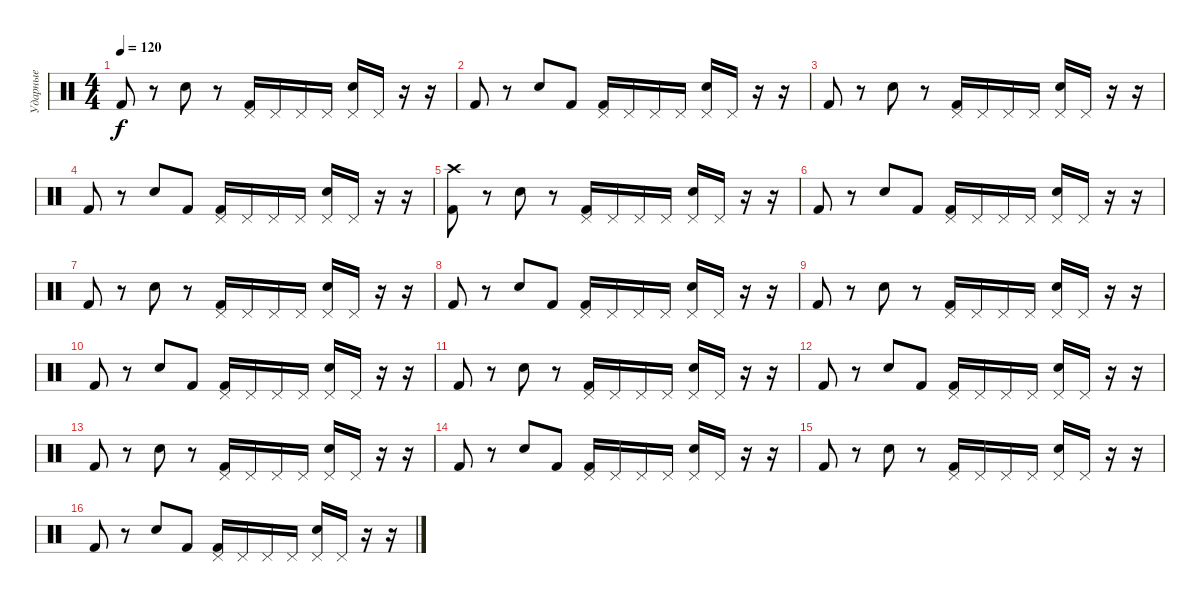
\track ("Ударные" "Ударные") {instrument percussion}
\staff {score}
\articulation defaults
\ts (4 4)
\tempo 120
\clef neutral
\ks c "Kick (hit) 2".8{dy f}
r.8 "Electric Snare (hit)".8 r.8 ("Pedal Hi-Hat (hit)" "Kick (hit) 2").16 "Pedal Hi-Hat (hit)".16 "Pedal Hi-Hat (hit)".16 "Pedal Hi-Hat (hit)".16 ("Pedal Hi-Hat (hit)" "Electric Snare (hit)").16 "Pedal Hi-Hat (hit)".16 r.16 r.16 |
"Kick (hit) 2".8 r.8 "Electric Snare (hit)".8 "Kick (hit) 2".8 ("Pedal Hi-Hat (hit)" "Kick (hit) 2").16 "Pedal Hi-Hat (hit)".16 "Pedal Hi-Hat (hit)".16 "Pedal Hi-Hat (hit)".16 ("Pedal Hi-Hat (hit)" "Electric Snare (hit)").16 "Pedal Hi-Hat (hit)".16 r.16 r.16 |
"Kick (hit) 2".8 r.8 "Electric Snare (hit)".8 r.8 ("Pedal Hi-Hat (hit)" "Kick (hit) 2").16 "Pedal Hi-Hat (hit)".16 "Pedal Hi-Hat (hit)".16 "Pedal Hi-Hat (hit)".16 ("Pedal Hi-Hat (hit)" "Electric Snare (hit)").16 "Pedal Hi-Hat (hit)".16 r.16 r.16 |
"Kick (hit) 2".8 r.8 "Electric Snare (hit)".8 "Kick (hit) 2".8 ("Pedal Hi-Hat (hit)" "Kick (hit) 2").16 "Pedal Hi-Hat (hit)".16 "Pedal Hi-Hat (hit)".16 "Pedal Hi-Hat (hit)".16 ("Pedal Hi-Hat (hit)" "Electric Snare (hit)").16 "Pedal Hi-Hat (hit)".16 r.16 r.16 |
("Crash high (hit)" "Kick (hit) 2").8 r.8 "Electric Snare (hit)".8 r.8 ("Pedal Hi-Hat (hit)" "Kick (hit) 2").16 "Pedal Hi-Hat (hit)".16 "Pedal Hi-Hat (hit)".16 "Pedal Hi-Hat (hit)".16 ("Pedal Hi-Hat (hit)" "Electric Snare (hit)").16 "Pedal Hi-Hat (hit)".16 r.16 r.16 |
"Kick (hit) 2".8 r.8 "Electric Snare (hit)".8 "Kick (hit) 2".8 ("Pedal Hi-Hat (hit)" "Kick (hit) 2").16 "Pedal Hi-Hat (hit)".16 "Pedal Hi-Hat (hit)".16 "Pedal Hi-Hat (hit)".16 ("Pedal Hi-Hat (hit)" "Electric Snare (hit)").16 "Pedal Hi-Hat (hit)".16 r.16 r.16 |
"Kick (hit) 2".8 r.8 "Electric Snare (hit)".8 r.8 ("Pedal Hi-Hat (hit)" "Kick (hit) 2").16 "Pedal Hi-Hat (hit)".16 "Pedal Hi-Hat (hit)".16 "Pedal Hi-Hat (hit)".16 ("Pedal Hi-Hat (hit)" "Electric Snare (hit)").16 "Pedal Hi-Hat (hit)".16 r.16 r.16 |
"Kick (hit) 2".8 r.8 "Electric Snare (hit)".8 "Kick (hit) 2".8 ("Pedal Hi-Hat (hit)" "Kick (hit) 2").16 "Pedal Hi-Hat (hit)".16 "Pedal Hi-Hat (hit)".16 "Pedal Hi-Hat (hit)".16 ("Pedal Hi-Hat (hit)" "Electric Snare (hit)").16 "Pedal Hi-Hat (hit)".16 r.16 r.16 |
"Kick (hit) 2".8 r.8 "Electric Snare (hit)".8 r.8 ("Pedal Hi-Hat (hit)" "Kick (hit) 2").16 "Pedal Hi-Hat (hit)".16 "Pedal Hi-Hat (hit)".16 "Pedal Hi-Hat (hit)".16 ("Pedal Hi-Hat (hit)" "Electric Snare (hit)").16 "Pedal Hi-Hat (hit)".16 r.16 r.16 |
"Kick (hit) 2".8 r.8 "Electric Snare (hit)".8 "Kick (hit) 2".8 ("Pedal Hi-Hat (hit)" "Kick (hit) 2").16 "Pedal Hi-Hat (hit)".16 "Pedal Hi-Hat (hit)".16 "Pedal Hi-Hat (hit)".16 ("Pedal Hi-Hat (hit)" "Electric Snare (hit)").16 "Pedal Hi-Hat (hit)".16 r.16 r.16 |
"Kick (hit) 2".8 r.8 "Electric Snare (hit)".8 r.8 ("Pedal Hi-Hat (hit)" "Kick (hit) 2").16 "Pedal Hi-Hat (hit)".16 "Pedal Hi-Hat (hit)".16 "Pedal Hi-Hat (hit)".16 ("Pedal Hi-Hat (hit)" "Electric Snare (hit)").16 "Pedal Hi-Hat (hit)".16 r.16 r.16 |
"Kick (hit) 2".8 r.8 "Electric Snare (hit)".8 "Kick (hit) 2".8 ("Pedal Hi-Hat (hit)" "Kick (hit) 2").16 "Pedal Hi-Hat (hit)".16 "Pedal Hi-Hat (hit)".16 "Pedal Hi-Hat (hit)".16 ("Pedal Hi-Hat (hit)" "Electric Snare (hit)").16 "Pedal Hi-Hat (hit)".16 r.16 r.16 |
"Kick (hit) 2".8 r.8 "Electric Snare (hit)".8 r.8 ("Pedal Hi-Hat (hit)" "Kick (hit) 2").16 "Pedal Hi-Hat (hit)".16 "Pedal Hi-Hat (hit)".16 "Pedal Hi-Hat (hit)".16 ("Pedal Hi-Hat (hit)" "Electric Snare (hit)").16 "Pedal Hi-Hat (hit)".16 r.16 r.16 |
"Kick (hit) 2".8 r.8 "Electric Snare (hit)".8 "Kick (hit) 2".8 ("Pedal Hi-Hat (hit)" "Kick (hit) 2").16 "Pedal Hi-Hat (hit)".16 "Pedal Hi-Hat (hit)".16 "Pedal Hi-Hat (hit)".16 ("Pedal Hi-Hat (hit)" "Electric Snare (hit)").16 "Pedal Hi-Hat (hit)".16 r.16 r.16 |
"Kick (hit) 2".8 r.8 "Electric Snare (hit)".8 r.8 ("Pedal Hi-Hat (hit)" "Kick (hit) 2").16 "Pedal Hi-Hat (hit)".16 "Pedal Hi-Hat (hit)".16 "Pedal Hi-Hat (hit)".16 ("Pedal Hi-Hat (hit)" "Electric Snare (hit)").16 "Pedal Hi-Hat (hit)".16 r.16 r.16 |
"Kick (hit) 2".8 r.8 "Electric Snare (hit)".8 "Kick (hit) 2".8 ("Pedal Hi-Hat (hit)" "Kick (hit) 2").16 "Pedal Hi-Hat (hit)".16 "Pedal Hi-Hat (hit)".16 "Pedal Hi-Hat (hit)".16 ("Pedal Hi-Hat (hit)" "Electric Snare (hit)").16 "Pedal Hi-Hat (hit)".16 r.16 r.16
